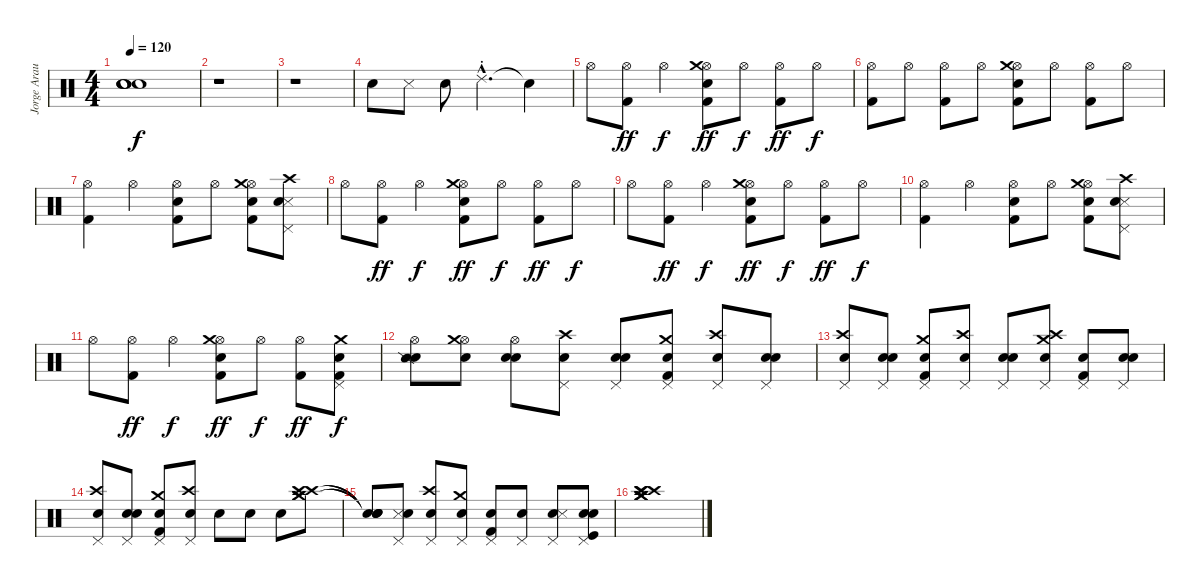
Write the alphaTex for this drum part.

\track ("Jorge Araujo" "Jorge Arau") {instrument percussion}
\staff {score}
\articulation defaults
\ts (4 4)
\tempo 120
\clef neutral
\ks c
("Snare (hit)"{t} "Snare (hit)"{t} "Snare (hit)"{t} "Snare (hit)"{t}).1{dy f} |
r.1 |
r.1 |
"Metronome (bell)".8 "Metronome (hit)".8 "Snare (hit) 2".8 "Ride (choke) 2"{hac}.4{d} "Snare (hit)"{t}.4 |
"Hi-Hat (open)".8 ("Kick (hit) 2" "Hi-Hat (open)").8{dy ff} "Hi-Hat (open)".4{dy f} ("Kick (hit) 2" "Hi-Hat (open)" "Metronome (bell)" "Crash medium (hit)").8{dy ff} "Hi-Hat (open)".8{dy f} ("Kick (hit) 2" "Hi-Hat (open)").8{dy ff} "Hi-Hat (open)".8{dy f} |
("Kick (hit) 2" "Hi-Hat (open)").8 "Hi-Hat (open)".8 ("Kick (hit) 2" "Hi-Hat (open)").8 "Hi-Hat (open)".8 ("Kick (hit) 2" "Hi-Hat (open)" "Metronome (bell)" "Crash medium (hit)").8 "Hi-Hat (open)".8 ("Kick (hit) 2" "Hi-Hat (open)").8 "Hi-Hat (open)".8 |
("Kick (hit) 2" "Hi-Hat (open)").4 "Hi-Hat (open)".4 ("Kick (hit) 2" "Hi-Hat (open)" "Metronome (bell)").8 "Hi-Hat (open)".8 ("Kick (hit) 2" "Hi-Hat (open)" "Metronome (bell)" "Crash medium (hit)").8 ("Metronome (hit)" "Crash high (hit)" "Pedal Hi-Hat (hit)" "Metronome (bell)").8 |
"Hi-Hat (open)".8 ("Kick (hit) 2" "Hi-Hat (open)").8{dy ff} "Hi-Hat (open)".4{dy f} ("Kick (hit) 2" "Hi-Hat (open)" "Metronome (bell)" "Crash medium (hit)").8{dy ff} "Hi-Hat (open)".8{dy f} ("Kick (hit) 2" "Hi-Hat (open)").8{dy ff} "Hi-Hat (open)".8{dy f} |
"Hi-Hat (open)".8 ("Kick (hit) 2" "Hi-Hat (open)").8{dy ff} "Hi-Hat (open)".4{dy f} ("Kick (hit) 2" "Hi-Hat (open)" "Metronome (bell)" "Crash medium (hit)").8{dy ff} "Hi-Hat (open)".8{dy f} ("Kick (hit) 2" "Hi-Hat (open)").8{dy ff} "Hi-Hat (open)".8{dy f} |
("Kick (hit) 2" "Hi-Hat (open)").4 "Hi-Hat (open)".4 ("Kick (hit) 2" "Hi-Hat (open)" "Metronome (bell)").8 "Hi-Hat (open)".8 ("Kick (hit) 2" "Hi-Hat (open)" "Metronome (bell)" "Crash medium (hit)").8 ("Metronome (hit)" "Crash high (hit)" "Pedal Hi-Hat (hit)" "Metronome (bell)").8 |
"Hi-Hat (open)".8 ("Kick (hit) 2" "Hi-Hat (open)").8{dy ff} "Hi-Hat (open)".4{dy f} ("Kick (hit) 2" "Hi-Hat (open)" "Metronome (bell)" "Crash medium (hit)").8{dy ff} "Hi-Hat (open)".8{dy f} ("Kick (hit) 2" "Hi-Hat (open)").8{dy ff} ("Pedal Hi-Hat (hit)" "Metronome (bell)" "Crash medium (hit)" "Kick (hit) 2").8{dy f} |
("Hi-Hat (open)" "Metronome (bell)" "Snare (side stick) 2").8 ("Hi-Hat (open)" "Metronome (bell)" "Crash medium (hit)").8 ("Hi-Hat (open)" "Metronome (bell)" "Snare (hit) 2").8 ("Pedal Hi-Hat (hit)" "Metronome (bell)" "Crash high (hit)").8 ("Pedal Hi-Hat (hit)" "Metronome (bell)" "Snare (hit) 2").8 ("Pedal Hi-Hat (hit)" "Kick (hit) 2" "Snare (hit) 2" "Crash medium (hit)").8 ("Pedal Hi-Hat (hit)" "Metronome (bell)" "Crash high (hit)").8 ("Pedal Hi-Hat (hit)" "Metronome (bell)" "Snare (hit) 2").8 |
("Pedal Hi-Hat (hit)" "Metronome (bell)" "Crash high (hit)").8 ("Pedal Hi-Hat (hit)" "Metronome (bell)" "Snare (hit) 2").8 ("Pedal Hi-Hat (hit)" "Kick (hit) 2" "Snare (hit) 2" "Crash medium (hit)").8 ("Pedal Hi-Hat (hit)" "Metronome (bell)" "Crash high (hit)").8 ("Pedal Hi-Hat (hit)" "Metronome (bell)" "Snare (hit) 2").8 ("Pedal Hi-Hat (hit)" "Metronome (bell)" "Crash high (hit)" "Crash medium (hit)").8 ("Pedal Hi-Hat (hit)" "Kick (hit) 2" "Snare (hit) 2").8 ("Pedal Hi-Hat (hit)" "Metronome (bell)" "Snare (hit) 2").8 |
("Pedal Hi-Hat (hit)" "Metronome (bell)" "Crash high (hit)").8 ("Pedal Hi-Hat (hit)" "Metronome (bell)" "Snare (hit) 2").8 ("Pedal Hi-Hat (hit)" "Kick (hit) 2" "Snare (hit) 2" "Crash medium (hit)").8 ("Pedal Hi-Hat (hit)" "Metronome (bell)" "Crash high (hit)").8 "Snare (hit) 2".8 "Snare (hit) 2".8 "Metronome (bell)".8 ("Crash high (hit)" "Crash high (hit)" "Crash medium (hit)" "Crash medium (hit)").8 |
("Snare (hit)"{t} "Snare (hit)"{t} "Snare (hit)"{t} "Snare (hit)"{t}).8 ("Pedal Hi-Hat (hit)" "Metronome (hit)" "Snare (hit) 2").8 ("Pedal Hi-Hat (hit)" "Crash high (hit)" "Metronome (bell)").8 ("Pedal Hi-Hat (hit)" "Metronome (bell)" "Crash medium (hit)").8 ("Pedal Hi-Hat (hit)" "Electric Snare (hit)" "Kick (hit) 2").8 ("Pedal Hi-Hat (hit)" "Snare (hit) 2").8 ("Pedal Hi-Hat (hit)" "Metronome (bell)" "Metronome (hit)").8 ("Pedal Hi-Hat (hit)" "Kick (hit)" "Snare (hit) 2" "Metronome (bell)").8 |
("Crash high (hit)" "Crash high (hit)" "Crash medium (hit)" "Crash medium (hit)" "Crash medium (hit)" "Crash high (hit)").1
